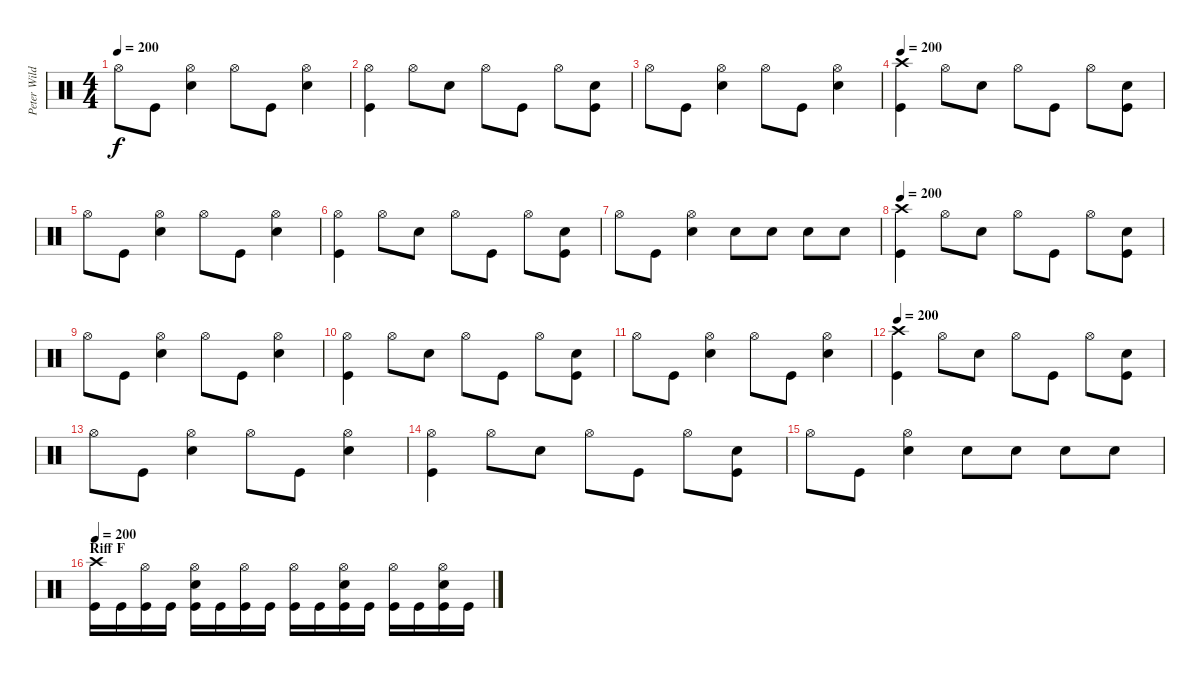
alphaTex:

\track ("Peter Wildoer " "Peter Wild") {instrument percussion}
\staff {score}
\articulation defaults
\ts (4 4)
\tempo 200
\clef neutral
\ks c "Hi-Hat (open)".8{dy f} "Kick (hit)".8
("Hi-Hat (open)" "Electric Snare (hit)").4 "Hi-Hat (open)".8 "Kick (hit)".8 ("Hi-Hat (open)" "Electric Snare (hit)").4 |
("Hi-Hat (open)" "Kick (hit)").4 "Hi-Hat (open)".8 "Electric Snare (hit)".8 "Hi-Hat (open)".8 "Kick (hit)".8 "Hi-Hat (open)".8 ("Electric Snare (hit)" "Kick (hit)").8 |
"Hi-Hat (open)".8 "Kick (hit)".8 ("Hi-Hat (open)" "Electric Snare (hit)").4 "Hi-Hat (open)".8 "Kick (hit)".8 ("Hi-Hat (open)" "Electric Snare (hit)").4 |
\tempo 200
("Crash high (hit)" "Kick (hit)").4 "Hi-Hat (open)".8 "Electric Snare (hit)".8 "Hi-Hat (open)".8 "Kick (hit)".8 "Hi-Hat (open)".8 ("Electric Snare (hit)" "Kick (hit)").8 |
"Hi-Hat (open)".8 "Kick (hit)".8 ("Hi-Hat (open)" "Electric Snare (hit)").4 "Hi-Hat (open)".8 "Kick (hit)".8 ("Hi-Hat (open)" "Electric Snare (hit)").4 |
("Hi-Hat (open)" "Kick (hit)").4 "Hi-Hat (open)".8 "Electric Snare (hit)".8 "Hi-Hat (open)".8 "Kick (hit)".8 "Hi-Hat (open)".8 ("Electric Snare (hit)" "Kick (hit)").8 |
"Hi-Hat (open)".8 "Kick (hit)".8 ("Hi-Hat (open)" "Electric Snare (hit)").4 "Electric Snare (hit)".8 "Electric Snare (hit)".8 "Electric Snare (hit)".8 "Electric Snare (hit)".8 |
\tempo 200
("Crash high (hit)" "Kick (hit)").4 "Hi-Hat (open)".8 "Electric Snare (hit)".8 "Hi-Hat (open)".8 "Kick (hit)".8 "Hi-Hat (open)".8 ("Electric Snare (hit)" "Kick (hit)").8 |
"Hi-Hat (open)".8 "Kick (hit)".8 ("Hi-Hat (open)" "Electric Snare (hit)").4 "Hi-Hat (open)".8 "Kick (hit)".8 ("Hi-Hat (open)" "Electric Snare (hit)").4 |
("Hi-Hat (open)" "Kick (hit)").4 "Hi-Hat (open)".8 "Electric Snare (hit)".8 "Hi-Hat (open)".8 "Kick (hit)".8 "Hi-Hat (open)".8 ("Electric Snare (hit)" "Kick (hit)").8 |
"Hi-Hat (open)".8 "Kick (hit)".8 ("Hi-Hat (open)" "Electric Snare (hit)").4 "Hi-Hat (open)".8 "Kick (hit)".8 ("Hi-Hat (open)" "Electric Snare (hit)").4 |
\tempo 200
("Crash high (hit)" "Kick (hit)").4 "Hi-Hat (open)".8 "Electric Snare (hit)".8 "Hi-Hat (open)".8 "Kick (hit)".8 "Hi-Hat (open)".8 ("Electric Snare (hit)" "Kick (hit)").8 |
"Hi-Hat (open)".8 "Kick (hit)".8 ("Hi-Hat (open)" "Electric Snare (hit)").4 "Hi-Hat (open)".8 "Kick (hit)".8 ("Hi-Hat (open)" "Electric Snare (hit)").4 |
("Hi-Hat (open)" "Kick (hit)").4 "Hi-Hat (open)".8 "Electric Snare (hit)".8 "Hi-Hat (open)".8 "Kick (hit)".8 "Hi-Hat (open)".8 ("Electric Snare (hit)" "Kick (hit)").8 |
"Hi-Hat (open)".8 "Kick (hit)".8 ("Hi-Hat (open)" "Electric Snare (hit)").4 "Electric Snare (hit)".8 "Electric Snare (hit)".8 "Electric Snare (hit)".8 "Electric Snare (hit)".8 |
\section ("" "Riff F")
\tempo 200
("Crash high (hit)" "Kick (hit)").16 "Kick (hit)".16 ("Hi-Hat (open)" "Kick (hit)").16 "Kick (hit)".16 ("Hi-Hat (open)" "Electric Snare (hit)" "Kick (hit)").16 "Kick (hit)".16 ("Hi-Hat (open)" "Kick (hit)").16 "Kick (hit)".16 ("Hi-Hat (open)" "Kick (hit)").16 "Kick (hit)".16 ("Hi-Hat (open)" "Electric Snare (hit)" "Kick (hit)").16 "Kick (hit)".16 ("Hi-Hat (open)" "Kick (hit)").16 "Kick (hit)".16 ("Hi-Hat (open)" "Electric Snare (hit)" "Kick (hit)").16 "Kick (hit)".16
